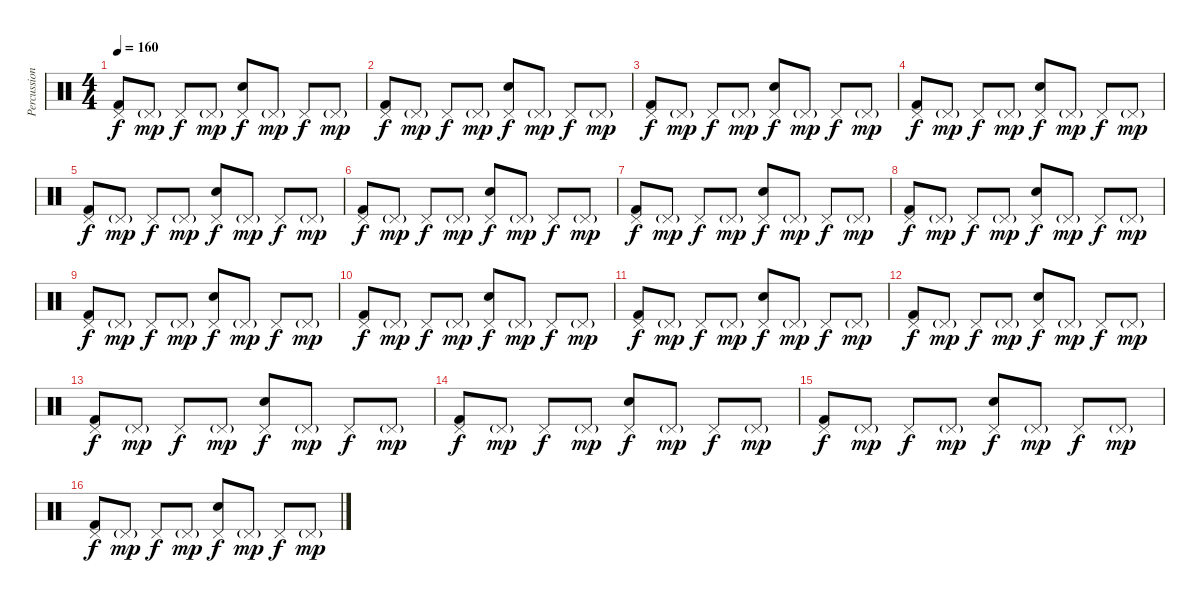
\track ("Percussion" "Percussion") {instrument percussion}
\staff {score}
\articulation defaults
\ts (4 4)
\tempo 160
\clef neutral
\ks c
("Pedal Hi-Hat (hit)" "Kick (hit) 2").8{dy f} "Pedal Hi-Hat (hit)"{g}.8{dy mp} "Pedal Hi-Hat (hit)".8{dy f} "Pedal Hi-Hat (hit)"{g}.8{dy mp} ("Pedal Hi-Hat (hit)" "Electric Snare (hit)").8{dy f} "Pedal Hi-Hat (hit)"{g}.8{dy mp} "Pedal Hi-Hat (hit)".8{dy f} "Pedal Hi-Hat (hit)"{g}.8{dy mp} |
("Pedal Hi-Hat (hit)" "Kick (hit) 2").8{dy f} "Pedal Hi-Hat (hit)"{g}.8{dy mp} "Pedal Hi-Hat (hit)".8{dy f} "Pedal Hi-Hat (hit)"{g}.8{dy mp} ("Pedal Hi-Hat (hit)" "Electric Snare (hit)").8{dy f} "Pedal Hi-Hat (hit)"{g}.8{dy mp} "Pedal Hi-Hat (hit)".8{dy f} "Pedal Hi-Hat (hit)"{g}.8{dy mp} |
("Pedal Hi-Hat (hit)" "Kick (hit) 2").8{dy f} "Pedal Hi-Hat (hit)"{g}.8{dy mp} "Pedal Hi-Hat (hit)".8{dy f} "Pedal Hi-Hat (hit)"{g}.8{dy mp} ("Pedal Hi-Hat (hit)" "Electric Snare (hit)").8{dy f} "Pedal Hi-Hat (hit)"{g}.8{dy mp} "Pedal Hi-Hat (hit)".8{dy f} "Pedal Hi-Hat (hit)"{g}.8{dy mp} |
("Pedal Hi-Hat (hit)" "Kick (hit) 2").8{dy f} "Pedal Hi-Hat (hit)"{g}.8{dy mp} "Pedal Hi-Hat (hit)".8{dy f} "Pedal Hi-Hat (hit)"{g}.8{dy mp} ("Pedal Hi-Hat (hit)" "Electric Snare (hit)").8{dy f} "Pedal Hi-Hat (hit)"{g}.8{dy mp} "Pedal Hi-Hat (hit)".8{dy f} "Pedal Hi-Hat (hit)"{g}.8{dy mp} |
("Pedal Hi-Hat (hit)" "Kick (hit) 2").8{dy f} "Pedal Hi-Hat (hit)"{g}.8{dy mp} "Pedal Hi-Hat (hit)".8{dy f} "Pedal Hi-Hat (hit)"{g}.8{dy mp} ("Pedal Hi-Hat (hit)" "Electric Snare (hit)").8{dy f} "Pedal Hi-Hat (hit)"{g}.8{dy mp} "Pedal Hi-Hat (hit)".8{dy f} "Pedal Hi-Hat (hit)"{g}.8{dy mp} |
("Pedal Hi-Hat (hit)" "Kick (hit) 2").8{dy f} "Pedal Hi-Hat (hit)"{g}.8{dy mp} "Pedal Hi-Hat (hit)".8{dy f} "Pedal Hi-Hat (hit)"{g}.8{dy mp} ("Pedal Hi-Hat (hit)" "Electric Snare (hit)").8{dy f} "Pedal Hi-Hat (hit)"{g}.8{dy mp} "Pedal Hi-Hat (hit)".8{dy f} "Pedal Hi-Hat (hit)"{g}.8{dy mp} |
("Pedal Hi-Hat (hit)" "Kick (hit) 2").8{dy f} "Pedal Hi-Hat (hit)"{g}.8{dy mp} "Pedal Hi-Hat (hit)".8{dy f} "Pedal Hi-Hat (hit)"{g}.8{dy mp} ("Pedal Hi-Hat (hit)" "Electric Snare (hit)").8{dy f} "Pedal Hi-Hat (hit)"{g}.8{dy mp} "Pedal Hi-Hat (hit)".8{dy f} "Pedal Hi-Hat (hit)"{g}.8{dy mp} |
("Pedal Hi-Hat (hit)" "Kick (hit) 2").8{dy f} "Pedal Hi-Hat (hit)"{g}.8{dy mp} "Pedal Hi-Hat (hit)".8{dy f} "Pedal Hi-Hat (hit)"{g}.8{dy mp} ("Pedal Hi-Hat (hit)" "Electric Snare (hit)").8{dy f} "Pedal Hi-Hat (hit)"{g}.8{dy mp} "Pedal Hi-Hat (hit)".8{dy f} "Pedal Hi-Hat (hit)"{g}.8{dy mp} |
("Pedal Hi-Hat (hit)" "Kick (hit) 2").8{dy f} "Pedal Hi-Hat (hit)"{g}.8{dy mp} "Pedal Hi-Hat (hit)".8{dy f} "Pedal Hi-Hat (hit)"{g}.8{dy mp} ("Pedal Hi-Hat (hit)" "Electric Snare (hit)").8{dy f} "Pedal Hi-Hat (hit)"{g}.8{dy mp} "Pedal Hi-Hat (hit)".8{dy f} "Pedal Hi-Hat (hit)"{g}.8{dy mp} |
("Pedal Hi-Hat (hit)" "Kick (hit) 2").8{dy f} "Pedal Hi-Hat (hit)"{g}.8{dy mp} "Pedal Hi-Hat (hit)".8{dy f} "Pedal Hi-Hat (hit)"{g}.8{dy mp} ("Pedal Hi-Hat (hit)" "Electric Snare (hit)").8{dy f} "Pedal Hi-Hat (hit)"{g}.8{dy mp} "Pedal Hi-Hat (hit)".8{dy f} "Pedal Hi-Hat (hit)"{g}.8{dy mp} |
("Pedal Hi-Hat (hit)" "Kick (hit) 2").8{dy f} "Pedal Hi-Hat (hit)"{g}.8{dy mp} "Pedal Hi-Hat (hit)".8{dy f} "Pedal Hi-Hat (hit)"{g}.8{dy mp} ("Pedal Hi-Hat (hit)" "Electric Snare (hit)").8{dy f} "Pedal Hi-Hat (hit)"{g}.8{dy mp} "Pedal Hi-Hat (hit)".8{dy f} "Pedal Hi-Hat (hit)"{g}.8{dy mp} |
("Pedal Hi-Hat (hit)" "Kick (hit) 2").8{dy f} "Pedal Hi-Hat (hit)"{g}.8{dy mp} "Pedal Hi-Hat (hit)".8{dy f} "Pedal Hi-Hat (hit)"{g}.8{dy mp} ("Pedal Hi-Hat (hit)" "Electric Snare (hit)").8{dy f} "Pedal Hi-Hat (hit)"{g}.8{dy mp} "Pedal Hi-Hat (hit)".8{dy f} "Pedal Hi-Hat (hit)"{g}.8{dy mp} |
("Pedal Hi-Hat (hit)" "Kick (hit) 2").8{dy f} "Pedal Hi-Hat (hit)"{g}.8{dy mp} "Pedal Hi-Hat (hit)".8{dy f} "Pedal Hi-Hat (hit)"{g}.8{dy mp} ("Pedal Hi-Hat (hit)" "Electric Snare (hit)").8{dy f} "Pedal Hi-Hat (hit)"{g}.8{dy mp} "Pedal Hi-Hat (hit)".8{dy f} "Pedal Hi-Hat (hit)"{g}.8{dy mp} |
("Pedal Hi-Hat (hit)" "Kick (hit) 2").8{dy f} "Pedal Hi-Hat (hit)"{g}.8{dy mp} "Pedal Hi-Hat (hit)".8{dy f} "Pedal Hi-Hat (hit)"{g}.8{dy mp} ("Pedal Hi-Hat (hit)" "Electric Snare (hit)").8{dy f} "Pedal Hi-Hat (hit)"{g}.8{dy mp} "Pedal Hi-Hat (hit)".8{dy f} "Pedal Hi-Hat (hit)"{g}.8{dy mp} |
("Pedal Hi-Hat (hit)" "Kick (hit) 2").8{dy f} "Pedal Hi-Hat (hit)"{g}.8{dy mp} "Pedal Hi-Hat (hit)".8{dy f} "Pedal Hi-Hat (hit)"{g}.8{dy mp} ("Pedal Hi-Hat (hit)" "Electric Snare (hit)").8{dy f} "Pedal Hi-Hat (hit)"{g}.8{dy mp} "Pedal Hi-Hat (hit)".8{dy f} "Pedal Hi-Hat (hit)"{g}.8{dy mp} |
("Pedal Hi-Hat (hit)" "Kick (hit) 2").8{dy f} "Pedal Hi-Hat (hit)"{g}.8{dy mp} "Pedal Hi-Hat (hit)".8{dy f} "Pedal Hi-Hat (hit)"{g}.8{dy mp} ("Pedal Hi-Hat (hit)" "Electric Snare (hit)").8{dy f} "Pedal Hi-Hat (hit)"{g}.8{dy mp} "Pedal Hi-Hat (hit)".8{dy f} "Pedal Hi-Hat (hit)"{g}.8{dy mp}
